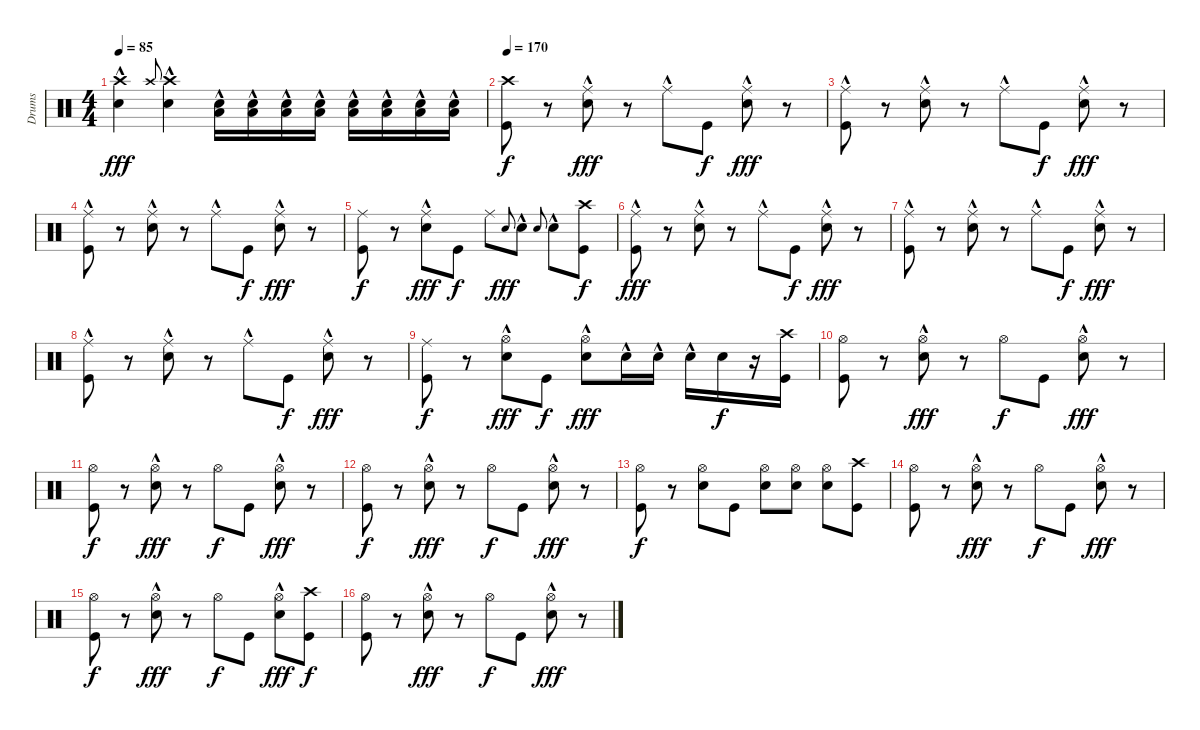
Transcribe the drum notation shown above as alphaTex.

\track ("Drums" "Drums") {instrument percussion}
\staff {score}
\articulation defaults
\ts (4 4)
\tempo 85
\clef neutral
\ks c
("Crash high (hit)"{hac} "Electric Snare (hit)"{hac}).4{dy fff} "Crash high (hit)".8{gr onbeat} ("Crash high (hit)"{hac} "Electric Snare (hit)"{hac}).4 ("Electric Snare (hit)"{hac} "Low Floor Tom (hit)").16{volume 9} ("Electric Snare (hit)"{hac} "Low Floor Tom (hit)").16{volume 10} ("Electric Snare (hit)"{hac} "Low Floor Tom (hit)").16{volume 11} ("Electric Snare (hit)"{hac} "Low Floor Tom (hit)").16{volume 12} ("Electric Snare (hit)"{hac} "Low Floor Tom (hit)").16{volume 13} ("Electric Snare (hit)"{hac} "Low Floor Tom (hit)").16{volume 14} ("Electric Snare (hit)"{hac} "Low Floor Tom (hit)").16{volume 15} ("Electric Snare (hit)"{hac} "Low Floor Tom (hit)").16{volume 16} |
\tempo 170
("Crash high (hit)" "Kick (hit)").8{dy f} r.8 ("Ride (middle)"{hac} "Electric Snare (hit)"{hac}).8{dy fff} r.8 "Ride (middle)"{hac}.8 "Kick (hit)".8{dy f} ("Ride (middle)"{hac} "Electric Snare (hit)"{hac}).8{dy fff} r.8 |
("Ride (middle)"{hac} "Kick (hit)").8 r.8 ("Ride (middle)"{hac} "Electric Snare (hit)"{hac}).8 r.8 "Ride (middle)"{hac}.8 "Kick (hit)".8{dy f} ("Ride (middle)"{hac} "Electric Snare (hit)"{hac}).8{dy fff} r.8 |
("Ride (middle)"{hac} "Kick (hit)").8 r.8 ("Ride (middle)"{hac} "Electric Snare (hit)"{hac}).8 r.8 "Ride (middle)"{hac}.8 "Kick (hit)".8{dy f} ("Ride (middle)"{hac} "Electric Snare (hit)"{hac}).8{dy fff} r.8 |
("Ride (middle)" "Kick (hit)").8{dy f} r.8 ("Ride (middle)" "Electric Snare (hit)"{hac}).8{dy fff} "Kick (hit)".8{dy f} "Ride (middle)".8 "Electric Snare (hit)"{sl}.8{gr onbeat dy fff} "Electric Snare (hit)"{hac}.8 "Electric Snare (hit)"{sl}.8{gr onbeat} "Electric Snare (hit)"{hac}.8 ("Crash high (hit)" "Kick (hit)").8{dy f} |
("Ride (middle)"{hac} "Kick (hit)").8{dy fff} r.8 ("Ride (middle)"{hac} "Electric Snare (hit)"{hac}).8 r.8 "Ride (middle)"{hac}.8 "Kick (hit)".8{dy f} ("Ride (middle)"{hac} "Electric Snare (hit)"{hac}).8{dy fff} r.8 |
("Ride (middle)"{hac} "Kick (hit)").8 r.8 ("Ride (middle)"{hac} "Electric Snare (hit)"{hac}).8 r.8 "Ride (middle)"{hac}.8 "Kick (hit)".8{dy f} ("Ride (middle)"{hac} "Electric Snare (hit)"{hac}).8{dy fff} r.8 |
("Ride (middle)"{hac} "Kick (hit)").8 r.8 ("Ride (middle)"{hac} "Electric Snare (hit)"{hac}).8 r.8 "Ride (middle)"{hac}.8 "Kick (hit)".8{dy f} ("Ride (middle)"{hac} "Electric Snare (hit)"{hac}).8{dy fff} r.8 |
("Ride (middle)" "Kick (hit)").8{dy f} r.8 ("Hi-Hat (open)" "Electric Snare (hit)"{hac}).8{dy fff} "Kick (hit)".8{dy f} ("Hi-Hat (open)" "Electric Snare (hit)"{hac}).8{dy fff} "Electric Snare (hit)"{hac}.16 "Electric Snare (hit)"{hac}.16 "Electric Snare (hit)"{hac}.16 "Electric Snare (hit)".16{dy f} r.16 ("Crash high (hit)" "Kick (hit)").16 |
("Hi-Hat (open)" "Kick (hit)").8 r.8 ("Hi-Hat (open)" "Electric Snare (hit)"{hac}).8{dy fff} r.8 "Hi-Hat (open)".8{dy f} "Kick (hit)".8 ("Hi-Hat (open)" "Electric Snare (hit)"{hac}).8{dy fff} r.8 |
("Hi-Hat (open)" "Kick (hit)").8{dy f} r.8 ("Hi-Hat (open)" "Electric Snare (hit)"{hac}).8{dy fff} r.8 "Hi-Hat (open)".8{dy f} "Kick (hit)".8 ("Hi-Hat (open)" "Electric Snare (hit)"{hac}).8{dy fff} r.8 |
("Hi-Hat (open)" "Kick (hit)").8{dy f} r.8 ("Hi-Hat (open)" "Electric Snare (hit)"{hac}).8{dy fff} r.8 "Hi-Hat (open)".8{dy f} "Kick (hit)".8 ("Hi-Hat (open)" "Electric Snare (hit)"{hac}).8{dy fff} r.8 |
("Hi-Hat (open)" "Kick (hit)").8{dy f} r.8 ("Hi-Hat (open)" "Electric Snare (hit)").8 "Kick (hit)".8 ("Hi-Hat (open)" "Electric Snare (hit)").8 ("Hi-Hat (open)" "Electric Snare (hit)").8 ("Hi-Hat (open)" "Electric Snare (hit)").8 ("Crash high (hit)" "Kick (hit)").8 |
("Hi-Hat (open)" "Kick (hit)").8 r.8 ("Hi-Hat (open)" "Electric Snare (hit)"{hac}).8{dy fff} r.8 "Hi-Hat (open)".8{dy f} "Kick (hit)".8 ("Hi-Hat (open)" "Electric Snare (hit)"{hac}).8{dy fff} r.8 |
("Hi-Hat (open)" "Kick (hit)").8{dy f} r.8 ("Hi-Hat (open)" "Electric Snare (hit)"{hac}).8{dy fff} r.8 "Hi-Hat (open)".8{dy f} "Kick (hit)".8 ("Hi-Hat (open)" "Electric Snare (hit)"{hac}).8{dy fff} ("Crash high (hit)" "Kick (hit)").8{dy f} |
("Hi-Hat (open)" "Kick (hit)").8 r.8 ("Hi-Hat (open)" "Electric Snare (hit)"{hac}).8{dy fff} r.8 "Hi-Hat (open)".8{dy f} "Kick (hit)".8 ("Hi-Hat (open)" "Electric Snare (hit)"{hac}).8{dy fff} r.8
